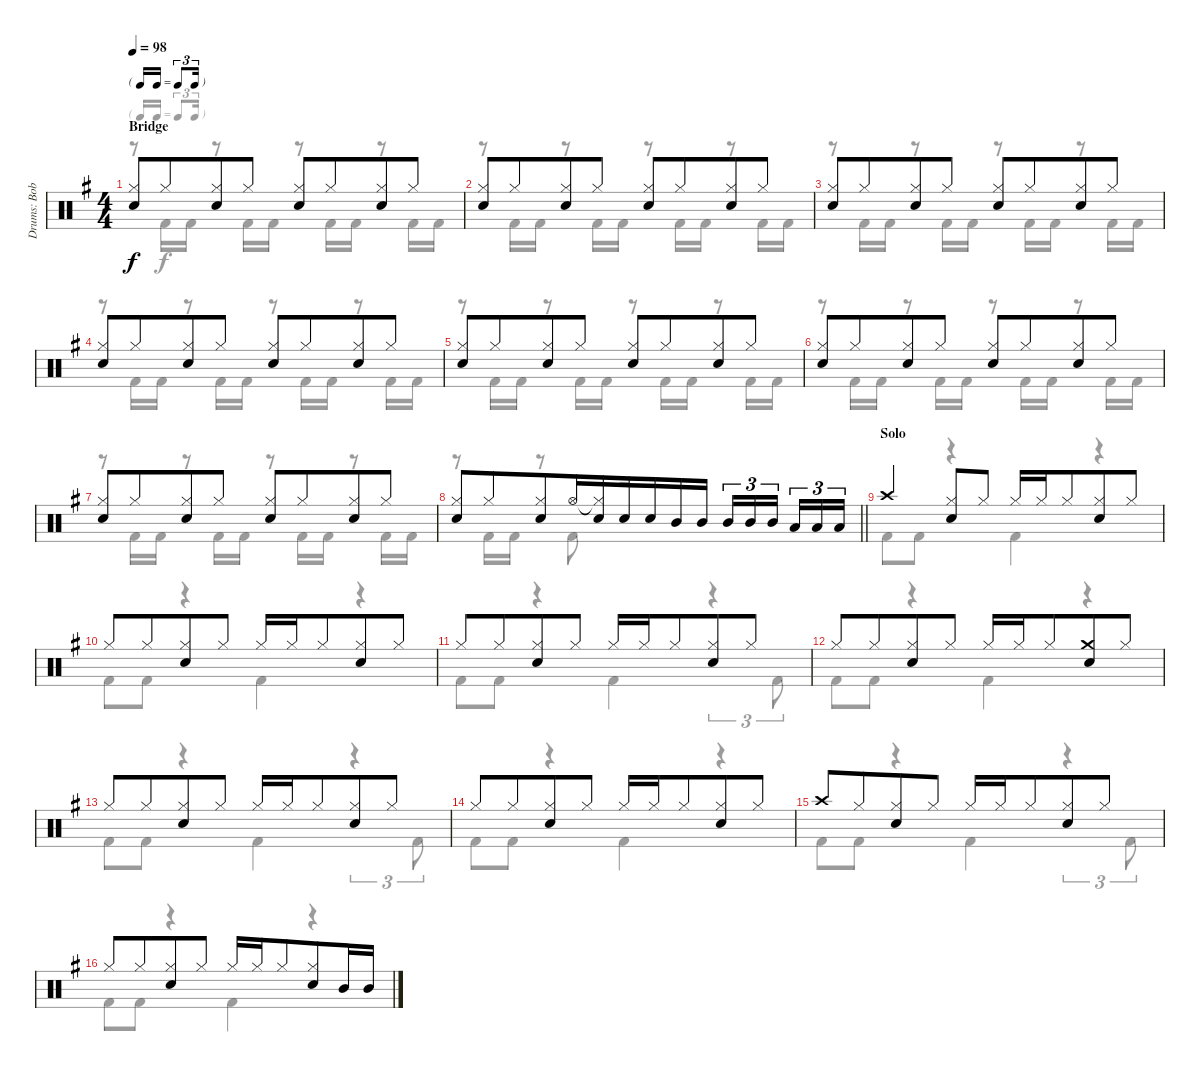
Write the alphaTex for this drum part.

\track ("Drums: Bobby" "Drums: Bob") {instrument percussion}
\staff {score}
\articulation defaults
\voice
\ts (4 4)
\tf triplet16th
\section ("" "Bridge")
\tempo 98
\clef neutral
\ks g
("Hi-Hat (closed)" "Snare (hit) 2").8{dy f} "Hi-Hat (closed)".8{beam merge} ("Hi-Hat (closed)" "Snare (hit) 2").8 "Hi-Hat (closed)".8 ("Hi-Hat (closed)" "Snare (hit) 2").8 "Hi-Hat (closed)".8{beam merge} ("Hi-Hat (closed)" "Snare (hit) 2").8 "Hi-Hat (closed)".8 |
("Hi-Hat (closed)" "Snare (hit) 2").8 "Hi-Hat (closed)".8{beam merge} ("Hi-Hat (closed)" "Snare (hit) 2").8 "Hi-Hat (closed)".8 ("Hi-Hat (closed)" "Snare (hit) 2").8 "Hi-Hat (closed)".8{beam merge} ("Hi-Hat (closed)" "Snare (hit) 2").8 "Hi-Hat (closed)".8 |
("Hi-Hat (closed)" "Snare (hit) 2").8 "Hi-Hat (closed)".8{beam merge} ("Hi-Hat (closed)" "Snare (hit) 2").8 "Hi-Hat (closed)".8 ("Hi-Hat (closed)" "Snare (hit) 2").8 "Hi-Hat (closed)".8{beam merge} ("Hi-Hat (closed)" "Snare (hit) 2").8 "Hi-Hat (closed)".8 |
("Hi-Hat (closed)" "Snare (hit) 2").8 "Hi-Hat (closed)".8{beam merge} ("Hi-Hat (closed)" "Snare (hit) 2").8 "Hi-Hat (closed)".8 ("Hi-Hat (closed)" "Snare (hit) 2").8 "Hi-Hat (closed)".8{beam merge} ("Hi-Hat (closed)" "Snare (hit) 2").8 "Hi-Hat (closed)".8 |
("Hi-Hat (closed)" "Snare (hit) 2").8 "Hi-Hat (closed)".8{beam merge} ("Hi-Hat (closed)" "Snare (hit) 2").8 "Hi-Hat (closed)".8 ("Hi-Hat (closed)" "Snare (hit) 2").8 "Hi-Hat (closed)".8{beam merge} ("Hi-Hat (closed)" "Snare (hit) 2").8 "Hi-Hat (closed)".8 |
("Hi-Hat (closed)" "Snare (hit) 2").8 "Hi-Hat (closed)".8{beam merge} ("Hi-Hat (closed)" "Snare (hit) 2").8 "Hi-Hat (closed)".8 ("Hi-Hat (closed)" "Snare (hit) 2").8 "Hi-Hat (closed)".8{beam merge} ("Hi-Hat (closed)" "Snare (hit) 2").8 "Hi-Hat (closed)".8 |
("Hi-Hat (closed)" "Snare (hit) 2").8 "Hi-Hat (closed)".8{beam merge} ("Hi-Hat (closed)" "Snare (hit) 2").8 "Hi-Hat (closed)".8 ("Hi-Hat (closed)" "Snare (hit) 2").8 "Hi-Hat (closed)".8{beam merge} ("Hi-Hat (closed)" "Snare (hit) 2").8 "Hi-Hat (closed)".8 |
\barLineRight lightlight
("Hi-Hat (closed)" "Snare (hit) 2").8 "Hi-Hat (closed)".8{beam merge} ("Hi-Hat (closed)" "Snare (hit) 2").8 "Hi-Hat (open)".16 ("Hi-Hat (closed)"{t} "Snare (hit) 2").16{beam merge} "Snare (hit) 2".16 "Snare (hit) 2".16 "Mid Tom (hit)".16 "Mid Tom (hit)".16 "Mid Tom (hit)".16{tu (3 2)} "Mid Tom (hit)".16{tu (3 2)} "Mid Tom (hit)".16{tu (3 2) beam splitsecondary} "Low Tom (hit)".16{tu (3 2)} "Low Tom (hit)".16{tu (3 2)} "Low Tom (hit)".16{tu (3 2)} |
\section ("" "Solo")
"Crash high (hit)".4{beam merge} ("Hi-Hat (closed)" "Snare (hit) 2").8 "Hi-Hat (closed)".8 "Hi-Hat (closed)".16 "Hi-Hat (closed)".16 "Hi-Hat (closed)".8{beam merge} ("Hi-Hat (closed)" "Snare (hit) 2").8 "Hi-Hat (closed)".8 |
"Hi-Hat (closed)".8 "Hi-Hat (closed)".8{beam merge} ("Hi-Hat (closed)" "Snare (hit) 2").8 "Hi-Hat (closed)".8 "Hi-Hat (closed)".16 "Hi-Hat (closed)".16 "Hi-Hat (closed)".8{beam merge} ("Hi-Hat (closed)" "Snare (hit) 2").8 "Hi-Hat (closed)".8 |
"Hi-Hat (closed)".8 "Hi-Hat (closed)".8{beam merge} ("Hi-Hat (closed)" "Snare (hit) 2").8 "Hi-Hat (closed)".8 "Hi-Hat (closed)".16 "Hi-Hat (closed)".16 "Hi-Hat (closed)".8{beam merge} ("Hi-Hat (closed)" "Snare (hit) 2").8 "Hi-Hat (closed)".8 |
"Hi-Hat (closed)".8 "Hi-Hat (closed)".8{beam merge} ("Hi-Hat (closed)" "Snare (hit) 2").8 "Hi-Hat (closed)".8 "Hi-Hat (closed)".16 "Hi-Hat (closed)".16 "Hi-Hat (closed)".8{beam merge} ("Crash medium (hit)" "Snare (hit) 2").8 "Hi-Hat (closed)".8 |
"Hi-Hat (closed)".8 "Hi-Hat (closed)".8{beam merge} ("Hi-Hat (closed)" "Snare (hit) 2").8 "Hi-Hat (closed)".8 "Hi-Hat (closed)".16 "Hi-Hat (closed)".16 "Hi-Hat (closed)".8{beam merge} ("Hi-Hat (closed)" "Snare (hit) 2").8 "Hi-Hat (closed)".8 |
"Hi-Hat (closed)".8 "Hi-Hat (closed)".8{beam merge} ("Hi-Hat (closed)" "Snare (hit) 2").8 "Hi-Hat (closed)".8 "Hi-Hat (closed)".16 "Hi-Hat (closed)".16 "Hi-Hat (closed)".8{beam merge} ("Hi-Hat (closed)" "Snare (hit) 2").8 "Hi-Hat (closed)".8 |
"Crash high (hit)".8 "Hi-Hat (closed)".8{beam merge} ("Hi-Hat (closed)" "Snare (hit) 2").8 "Hi-Hat (closed)".8 "Hi-Hat (closed)".16 "Hi-Hat (closed)".16 "Hi-Hat (closed)".8{beam merge} ("Hi-Hat (closed)" "Snare (hit) 2").8 "Hi-Hat (closed)".8 |
"Hi-Hat (closed)".8 "Hi-Hat (closed)".8{beam merge} ("Hi-Hat (closed)" "Snare (hit) 2").8 "Hi-Hat (closed)".8 "Hi-Hat (closed)".16 "Hi-Hat (closed)".16 "Hi-Hat (closed)".8{beam merge} ("Hi-Hat (closed)" "Snare (hit) 2").8 "Mid Tom (hit)".16 "Mid Tom (hit)".16
\voice
\clef neutral
\ottava regular
\simile none
\ks g
r.8{dy f} "Kick (hit) 2".16 "Kick (hit) 2".16 r.8 "Kick (hit) 2".16 "Kick (hit) 2".16 r.8 "Kick (hit) 2".16 "Kick (hit) 2".16 r.8 "Kick (hit) 2".16 "Kick (hit) 2".16 |
r.8 "Kick (hit) 2".16 "Kick (hit) 2".16 r.8 "Kick (hit) 2".16 "Kick (hit) 2".16 r.8 "Kick (hit) 2".16 "Kick (hit) 2".16 r.8 "Kick (hit) 2".16 "Kick (hit) 2".16 |
r.8 "Kick (hit) 2".16 "Kick (hit) 2".16 r.8 "Kick (hit) 2".16 "Kick (hit) 2".16 r.8 "Kick (hit) 2".16 "Kick (hit) 2".16 r.8 "Kick (hit) 2".16 "Kick (hit) 2".16 |
r.8 "Kick (hit) 2".16 "Kick (hit) 2".16 r.8 "Kick (hit) 2".16 "Kick (hit) 2".16 r.8 "Kick (hit) 2".16 "Kick (hit) 2".16 r.8 "Kick (hit) 2".16 "Kick (hit) 2".16 |
r.8 "Kick (hit) 2".16 "Kick (hit) 2".16 r.8 "Kick (hit) 2".16 "Kick (hit) 2".16 r.8 "Kick (hit) 2".16 "Kick (hit) 2".16 r.8 "Kick (hit) 2".16 "Kick (hit) 2".16 |
r.8 "Kick (hit) 2".16 "Kick (hit) 2".16 r.8 "Kick (hit) 2".16 "Kick (hit) 2".16 r.8 "Kick (hit) 2".16 "Kick (hit) 2".16 r.8 "Kick (hit) 2".16 "Kick (hit) 2".16 |
r.8 "Kick (hit) 2".16 "Kick (hit) 2".16 r.8 "Kick (hit) 2".16 "Kick (hit) 2".16 r.8 "Kick (hit) 2".16 "Kick (hit) 2".16 r.8 "Kick (hit) 2".16 "Kick (hit) 2".16 |
\barLineRight lightlight
r.8 "Kick (hit) 2".16 "Kick (hit) 2".16 r.8 "Kick (hit) 2".8 r.2 |
"Kick (hit) 2".8 "Kick (hit) 2".8 r.4 "Kick (hit) 2".4 r.4 |
"Kick (hit) 2".8 "Kick (hit) 2".8 r.4 "Kick (hit) 2".4 r.4 |
"Kick (hit) 2".8 "Kick (hit) 2".8 r.4 "Kick (hit) 2".4 r.4{tu (3 2)} "Kick (hit) 2".8{tu (3 2)} |
"Kick (hit) 2".8 "Kick (hit) 2".8 r.4 "Kick (hit) 2".4 r.4 |
"Kick (hit) 2".8 "Kick (hit) 2".8 r.4 "Kick (hit) 2".4 r.4{tu (3 2)} "Kick (hit) 2".8{tu (3 2)} |
"Kick (hit) 2".8 "Kick (hit) 2".8 r.4 "Kick (hit) 2".4 r.4 |
"Kick (hit) 2".8 "Kick (hit) 2".8 r.4 "Kick (hit) 2".4 r.4{tu (3 2)} "Kick (hit) 2".8{tu (3 2)} |
"Kick (hit) 2".8 "Kick (hit) 2".8 r.4 "Kick (hit) 2".4 r.4
